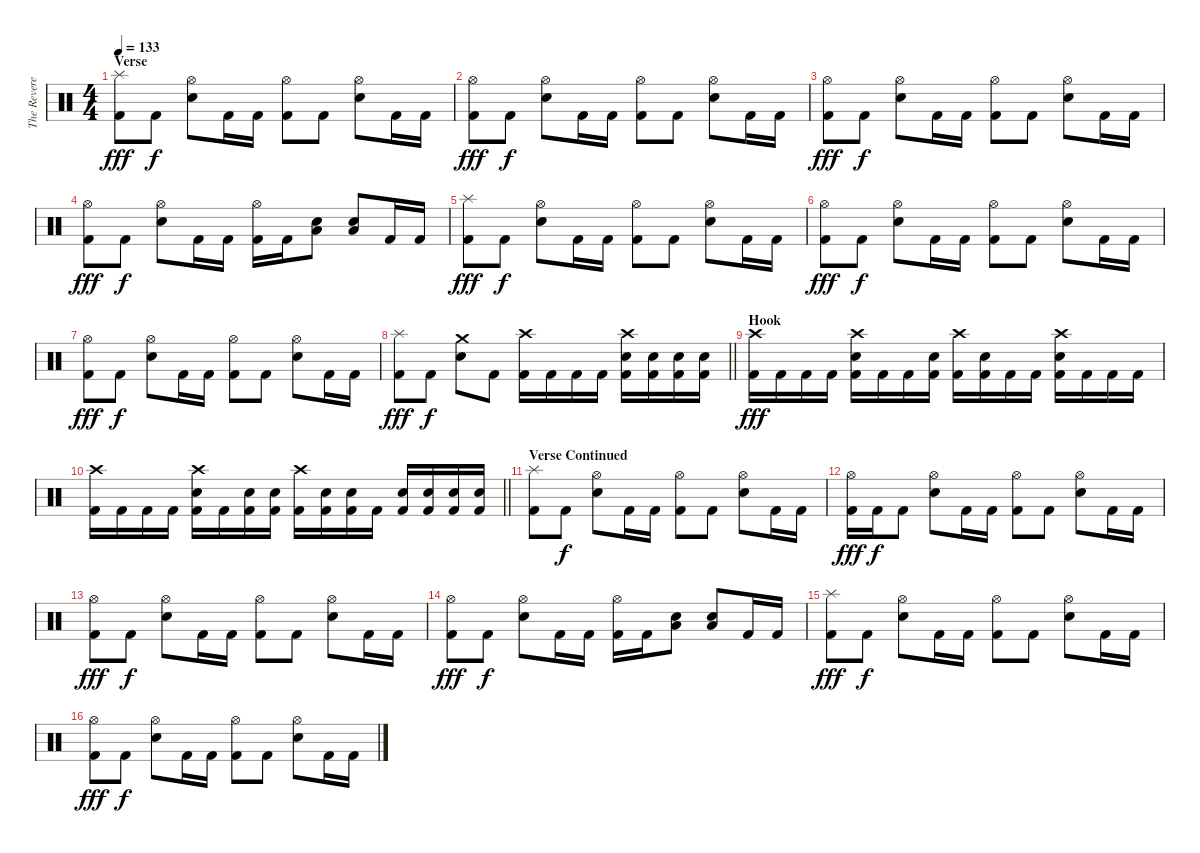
\track ("The Reverend (R.I.P.) [Drums]" "The Revere") {instrument percussion}
\staff {score}
\articulation defaults
\ts (4 4)
\section ("" "Verse")
\tempo 133
\clef neutral
\ks c
("Splash (hit)" "Kick (hit) 2").8{dy fff} "Kick (hit) 2".8{dy f} ("Hi-Hat (open)" "Electric Snare (hit)").8 "Kick (hit) 2".16 "Kick (hit) 2".16 ("Hi-Hat (open)" "Kick (hit) 2").8 "Kick (hit) 2".8 ("Hi-Hat (open)" "Electric Snare (hit)").8 "Kick (hit) 2".16 "Kick (hit) 2".16 |
("Hi-Hat (open)" "Kick (hit) 2").8{dy fff} "Kick (hit) 2".8{dy f} ("Hi-Hat (open)" "Electric Snare (hit)").8 "Kick (hit) 2".16 "Kick (hit) 2".16 ("Hi-Hat (open)" "Kick (hit) 2").8 "Kick (hit) 2".8 ("Hi-Hat (open)" "Electric Snare (hit)").8 "Kick (hit) 2".16 "Kick (hit) 2".16 |
("Hi-Hat (open)" "Kick (hit) 2").8{dy fff} "Kick (hit) 2".8{dy f} ("Hi-Hat (open)" "Electric Snare (hit)").8 "Kick (hit) 2".16 "Kick (hit) 2".16 ("Hi-Hat (open)" "Kick (hit) 2").8 "Kick (hit) 2".8 ("Hi-Hat (open)" "Electric Snare (hit)").8 "Kick (hit) 2".16 "Kick (hit) 2".16 |
("Hi-Hat (open)" "Kick (hit) 2").8{dy fff} "Kick (hit) 2".8{dy f} ("Hi-Hat (open)" "Electric Snare (hit)").8 "Kick (hit) 2".16 "Kick (hit) 2".16 ("Hi-Hat (open)" "Kick (hit) 2").16 "Kick (hit) 2".16 ("Low Floor Tom (hit)" "Electric Snare (hit)").8 ("Low Floor Tom (hit)" "Electric Snare (hit)").8 "Kick (hit) 2".16 "Kick (hit) 2".16 |
("Splash (hit)" "Kick (hit) 2").8{dy fff} "Kick (hit) 2".8{dy f} ("Hi-Hat (open)" "Electric Snare (hit)").8 "Kick (hit) 2".16 "Kick (hit) 2".16 ("Hi-Hat (open)" "Kick (hit) 2").8 "Kick (hit) 2".8 ("Hi-Hat (open)" "Electric Snare (hit)").8 "Kick (hit) 2".16 "Kick (hit) 2".16 |
("Hi-Hat (open)" "Kick (hit) 2").8{dy fff} "Kick (hit) 2".8{dy f} ("Hi-Hat (open)" "Electric Snare (hit)").8 "Kick (hit) 2".16 "Kick (hit) 2".16 ("Hi-Hat (open)" "Kick (hit) 2").8 "Kick (hit) 2".8 ("Hi-Hat (open)" "Electric Snare (hit)").8 "Kick (hit) 2".16 "Kick (hit) 2".16 |
("Hi-Hat (open)" "Kick (hit) 2").8{dy fff} "Kick (hit) 2".8{dy f} ("Hi-Hat (open)" "Electric Snare (hit)").8 "Kick (hit) 2".16 "Kick (hit) 2".16 ("Hi-Hat (open)" "Kick (hit) 2").8 "Kick (hit) 2".8 ("Hi-Hat (open)" "Electric Snare (hit)").8 "Kick (hit) 2".16 "Kick (hit) 2".16 |
\barLineRight lightlight
("Splash (hit)" "Kick (hit) 2").8{dy fff} "Kick (hit) 2".8{dy f} ("Crash medium (hit)" "Electric Snare (hit)").8 "Kick (hit) 2".8 ("Crash high (hit)" "Kick (hit) 2").16 "Kick (hit) 2".16 "Kick (hit) 2".16 "Kick (hit) 2".16 ("Crash high (hit)" "Electric Snare (hit)" "Kick (hit) 2").16 ("Electric Snare (hit)" "Kick (hit) 2").16 ("Electric Snare (hit)" "Kick (hit) 2").16 ("Electric Snare (hit)" "Kick (hit) 2").16 |
\section ("" "Hook")
("Crash high (hit)" "Kick (hit) 2").16{dy fff} "Kick (hit) 2".16 "Kick (hit) 2".16 "Kick (hit) 2".16 ("Crash high (hit)" "Electric Snare (hit)" "Kick (hit) 2").16 "Kick (hit) 2".16 "Kick (hit) 2".16 ("Electric Snare (hit)" "Kick (hit) 2").16 ("Crash high (hit)" "Kick (hit) 2").16 ("Electric Snare (hit)" "Kick (hit) 2").16 "Kick (hit) 2".16 "Kick (hit) 2".16 ("Crash high (hit)" "Electric Snare (hit)" "Kick (hit) 2").16 "Kick (hit) 2".16 "Kick (hit) 2".16 "Kick (hit) 2".16 |
\barLineRight lightlight
("Crash high (hit)" "Kick (hit) 2").16 "Kick (hit) 2".16 "Kick (hit) 2".16 "Kick (hit) 2".16 ("Crash high (hit)" "Electric Snare (hit)" "Kick (hit) 2").16 "Kick (hit) 2".16 ("Electric Snare (hit)" "Kick (hit) 2").16 ("Electric Snare (hit)" "Kick (hit) 2").16 ("Crash high (hit)" "Kick (hit) 2").16 ("Electric Snare (hit)" "Kick (hit) 2").16 ("Electric Snare (hit)" "Kick (hit) 2").16 "Kick (hit) 2".16 ("Electric Snare (hit)" "Kick (hit) 2").16 ("Electric Snare (hit)" "Kick (hit) 2").16 ("Electric Snare (hit)" "Kick (hit) 2").16 ("Electric Snare (hit)" "Kick (hit) 2").16 |
\section ("" "Verse Continued")
("Splash (hit)" "Kick (hit) 2").8 "Kick (hit) 2".8{dy f} ("Hi-Hat (open)" "Electric Snare (hit)").8 "Kick (hit) 2".16 "Kick (hit) 2".16 ("Hi-Hat (open)" "Kick (hit) 2").8 "Kick (hit) 2".8 ("Hi-Hat (open)" "Electric Snare (hit)").8 "Kick (hit) 2".16 "Kick (hit) 2".16 |
("Hi-Hat (open)" "Kick (hit) 2").16{dy fff} "Kick (hit) 2".16{dy f} "Kick (hit) 2".8 ("Hi-Hat (open)" "Electric Snare (hit)").8 "Kick (hit) 2".16 "Kick (hit) 2".16 ("Hi-Hat (open)" "Kick (hit) 2").8 "Kick (hit) 2".8 ("Hi-Hat (open)" "Electric Snare (hit)").8 "Kick (hit) 2".16 "Kick (hit) 2".16 |
("Hi-Hat (open)" "Kick (hit) 2").8{dy fff} "Kick (hit) 2".8{dy f} ("Hi-Hat (open)" "Electric Snare (hit)").8 "Kick (hit) 2".16 "Kick (hit) 2".16 ("Hi-Hat (open)" "Kick (hit) 2").8 "Kick (hit) 2".8 ("Hi-Hat (open)" "Electric Snare (hit)").8 "Kick (hit) 2".16 "Kick (hit) 2".16 |
("Hi-Hat (open)" "Kick (hit) 2").8{dy fff} "Kick (hit) 2".8{dy f} ("Hi-Hat (open)" "Electric Snare (hit)").8 "Kick (hit) 2".16 "Kick (hit) 2".16 ("Hi-Hat (open)" "Kick (hit) 2").16 "Kick (hit) 2".16 ("Low Floor Tom (hit)" "Electric Snare (hit)").8 ("Low Floor Tom (hit)" "Electric Snare (hit)").8 "Kick (hit) 2".16 "Kick (hit) 2".16 |
("Splash (hit)" "Kick (hit) 2").8{dy fff} "Kick (hit) 2".8{dy f} ("Hi-Hat (open)" "Electric Snare (hit)").8 "Kick (hit) 2".16 "Kick (hit) 2".16 ("Hi-Hat (open)" "Kick (hit) 2").8 "Kick (hit) 2".8 ("Hi-Hat (open)" "Electric Snare (hit)").8 "Kick (hit) 2".16 "Kick (hit) 2".16 |
("Hi-Hat (open)" "Kick (hit) 2").8{dy fff} "Kick (hit) 2".8{dy f} ("Hi-Hat (open)" "Electric Snare (hit)").8 "Kick (hit) 2".16 "Kick (hit) 2".16 ("Hi-Hat (open)" "Kick (hit) 2").8 "Kick (hit) 2".8 ("Hi-Hat (open)" "Electric Snare (hit)").8 "Kick (hit) 2".16 "Kick (hit) 2".16
